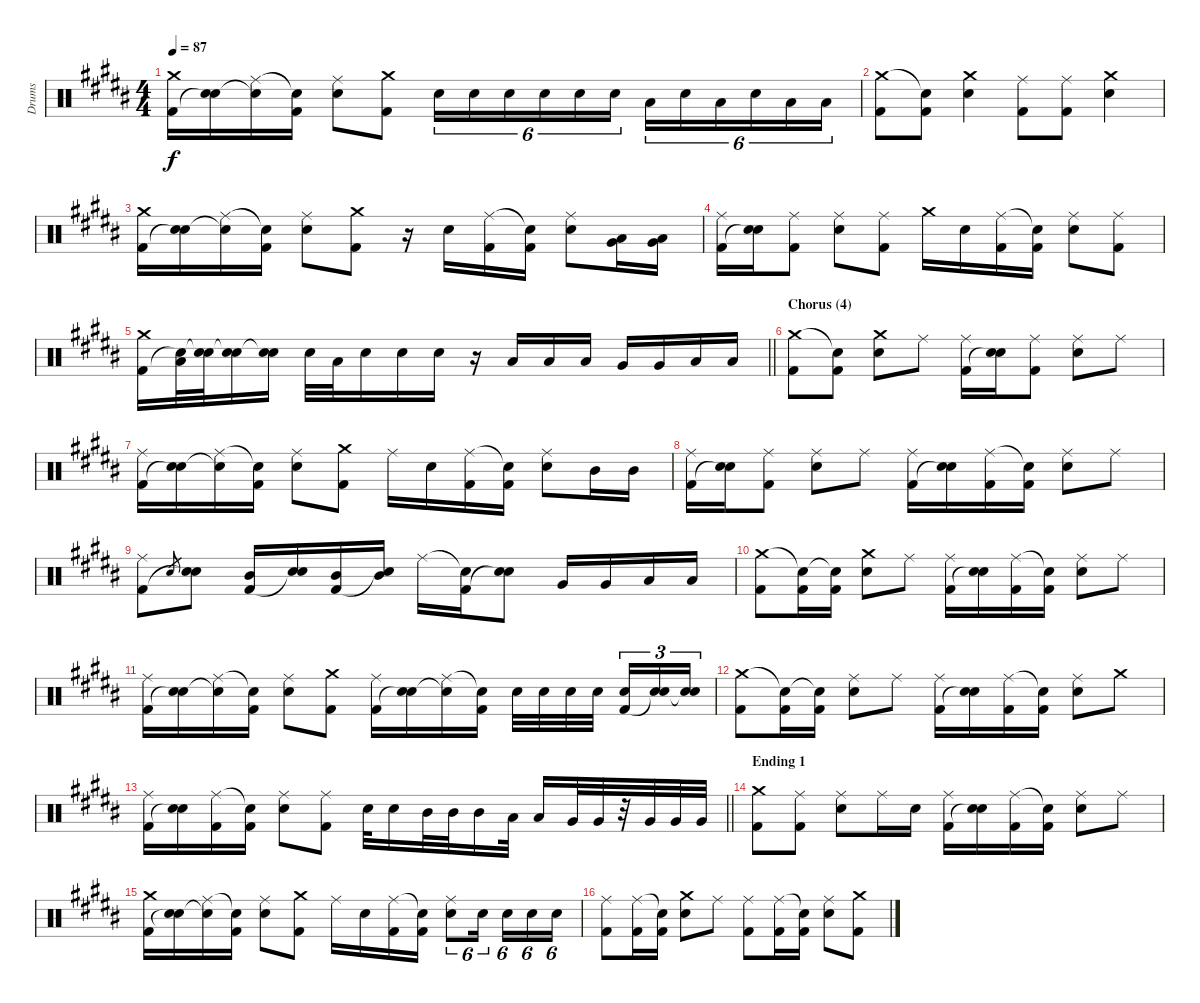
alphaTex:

\track ("Drums" "Drums") {instrument percussion}
\staff {score}
\articulation defaults
\ts (4 4)
\tempo 87
\clef neutral
\ks b
("Crash medium (hit)" "Kick (hit) 2").16{dy f} ("Electric Snare (hit)" "Snare (hit)"{t}).16 ("Ride (middle)" "Snare (hit)"{t}).16 ("Snare (hit)"{t} "Kick (hit) 2").16 ("Ride (middle)" "Electric Snare (hit)").8 ("Crash medium (hit)" "Kick (hit) 2").8 "Electric Snare (hit)".16{tu (6 4)} "Electric Snare (hit)".16{tu (6 4)} "Electric Snare (hit)".16{tu (6 4)} "Electric Snare (hit)".16{tu (6 4)} "Electric Snare (hit)".16{tu (6 4)} "Electric Snare (hit)".16{tu (6 4)} "Low Tom (hit)".16{tu (6 4)} "Electric Snare (hit)".16{tu (6 4)} "Low Tom (hit)".16{tu (6 4)} "Electric Snare (hit)".16{tu (6 4)} "Low Tom (hit)".16{tu (6 4)} "Low Tom (hit)".16{tu (6 4)} |
("Crash medium (hit)" "Kick (hit) 2").8 ("Snare (hit)"{t} "Kick (hit) 2").8 ("Crash medium (hit)" "Electric Snare (hit)").4 ("Ride (middle)" "Kick (hit) 2").8 ("Ride (middle)" "Kick (hit) 2").8 ("Crash medium (hit)" "Electric Snare (hit)").4 |
("Crash medium (hit)" "Kick (hit) 2").16 ("Electric Snare (hit)" "Snare (hit)"{t}).16 ("Ride (middle)" "Snare (hit)"{t}).16 ("Snare (hit)"{t} "Kick (hit) 2").16 ("Ride (middle)" "Electric Snare (hit)").8 ("Crash medium (hit)" "Kick (hit) 2").8 r.16 "Electric Snare (hit)".16 ("Ride (middle)" "Kick (hit) 2").16 ("Snare (hit)"{t} "Kick (hit) 2").16 ("Ride (middle)" "Electric Snare (hit)").8 ("Low Tom (hit)" "Very Low Tom (hit)").16 ("Low Tom (hit)" "Very Low Tom (hit)").16 |
("Ride (middle)" "Kick (hit) 2").16 ("Electric Snare (hit)" "Snare (hit)"{t}).16 ("Ride (middle)" "Kick (hit) 2").8 ("Ride (middle)" "Electric Snare (hit)").8 ("Ride (middle)" "Kick (hit) 2").8 "Crash medium (hit)".16 "Electric Snare (hit)".16 ("Ride (middle)" "Kick (hit) 2").16 ("Snare (hit)"{t} "Kick (hit) 2").16 ("Ride (middle)" "Electric Snare (hit)").8 ("Ride (middle)" "Kick (hit) 2").8 |
\barLineRight lightlight
("Crash medium (hit)" "Kick (hit) 2").16 ("Low Tom (hit)" "Snare (hit)"{t}).32 ("Electric Snare (hit)" "Snare (hit)"{t}).32 ("Electric Snare (hit)" "Snare (hit)"{t}).16 ("Electric Snare (hit)" "Snare (hit)"{t}).16 "Electric Snare (hit)".32 "Low Tom (hit)".32 "Electric Snare (hit)".16 "Electric Snare (hit)".16 "Electric Snare (hit)".16 r.16 "Low Tom (hit)".16 "Low Tom (hit)".16 "Low Tom (hit)".16 "Very Low Tom (hit)".16 "Very Low Tom (hit)".16 "Low Floor Tom (hit)".16 "Low Floor Tom (hit)".16 |
\section ("" "Chorus (4)")
("Crash medium (hit)" "Kick (hit) 2").8 ("Snare (hit)"{t} "Kick (hit) 2").8 ("Crash medium (hit)" "Electric Snare (hit)").8 "Ride (middle)".8 ("Ride (middle)" "Kick (hit) 2").16 ("Electric Snare (hit)" "Snare (hit)"{t}).16 ("Ride (middle)" "Kick (hit) 2").8 ("Ride (middle)" "Electric Snare (hit)").8 "Ride (middle)".8 |
("Ride (middle)" "Kick (hit) 2").16 ("Electric Snare (hit)" "Snare (hit)"{t}).16 ("Ride (middle)" "Snare (hit)"{t}).16 ("Snare (hit)"{t} "Kick (hit) 2").16 ("Ride (middle)" "Electric Snare (hit)").8 ("Crash medium (hit)" "Kick (hit) 2").8 "Ride (middle)".16 "Electric Snare (hit)".16 ("Ride (middle)" "Kick (hit) 2").16 ("Snare (hit)"{t} "Kick (hit) 2").16 ("Ride (middle)" "Electric Snare (hit)").8 "Mid Tom (hit)".16 "Mid Tom (hit)".16 |
("Ride (middle)" "Kick (hit) 2").16 ("Electric Snare (hit)" "Snare (hit)"{t}).16 ("Ride (middle)" "Kick (hit) 2").8 ("Ride (middle)" "Electric Snare (hit)").8 "Ride (middle)".8 ("Ride (middle)" "Kick (hit) 2").16 ("Electric Snare (hit)" "Snare (hit)"{t}).16 ("Ride (middle)" "Kick (hit) 2").16 ("Snare (hit)"{t} "Kick (hit) 2").16 ("Ride (middle)" "Electric Snare (hit)").8 "Ride (middle)".8 |
("Ride (middle)" "Kick (hit) 2").8 "Electric Snare (hit)".8{gr} ("Electric Snare (hit)" "Snare (hit)"{t}).8 ("Mid Tom (hit)" "Kick (hit) 2").16 ("Electric Snare (hit)" "Snare (hit)"{t}).16 ("Mid Tom (hit)" "Kick (hit) 2").16 ("Mid Tom (hit)" "Snare (hit)"{t}).16 "Ride (middle)".16 ("Snare (hit)"{t} "Kick (hit) 2").16 ("Electric Snare (hit)" "Snare (hit)"{t}).8 "Very Low Tom (hit)".16 "Very Low Tom (hit)".16 "Low Floor Tom (hit)".16 "Low Floor Tom (hit)".16 |
("Crash medium (hit)" "Kick (hit) 2").8 ("Snare (hit)"{t} "Kick (hit) 2").16 ("Snare (hit)"{t} "Kick (hit) 2").16 ("Crash medium (hit)" "Electric Snare (hit)").8 "Ride (middle)".8 ("Ride (middle)" "Kick (hit) 2").16 ("Electric Snare (hit)" "Snare (hit)"{t}).16 ("Ride (middle)" "Kick (hit) 2").16 ("Snare (hit)"{t} "Kick (hit) 2").16 ("Ride (middle)" "Electric Snare (hit)").8 "Ride (middle)".8 |
("Ride (middle)" "Kick (hit) 2").16 ("Electric Snare (hit)" "Snare (hit)"{t}).16 ("Ride (middle)" "Snare (hit)"{t}).16 ("Snare (hit)"{t} "Kick (hit) 2").16 ("Ride (middle)" "Electric Snare (hit)").8 ("Crash medium (hit)" "Kick (hit) 2").8 ("Ride (middle)" "Kick (hit) 2").16 ("Electric Snare (hit)" "Snare (hit)"{t}).16 ("Ride (middle)" "Snare (hit)"{t}).16 ("Snare (hit)"{t} "Kick (hit) 2").16 "Electric Snare (hit)".32 "Electric Snare (hit)".32 "Electric Snare (hit)".32 "Electric Snare (hit)".32 ("Electric Snare (hit)" "Kick (hit) 2").16{tu (3 2)} ("Electric Snare (hit)" "Snare (hit)"{t}).16{tu (3 2)} ("Electric Snare (hit)" "Snare (hit)"{t}).16{tu (3 2)} |
("Crash medium (hit)" "Kick (hit) 2").8 ("Snare (hit)"{t} "Kick (hit) 2").16 ("Snare (hit)"{t} "Kick (hit) 2").16 ("Ride (middle)" "Electric Snare (hit)").8 "Ride (middle)".8 ("Ride (middle)" "Kick (hit) 2").16 ("Electric Snare (hit)" "Snare (hit)"{t}).16 ("Ride (middle)" "Kick (hit) 2").16 ("Snare (hit)"{t} "Kick (hit) 2").16 ("Ride (middle)" "Electric Snare (hit)").8 "Crash medium (hit)".8 |
\barLineRight lightlight
("Ride (middle)" "Kick (hit) 2").16 ("Electric Snare (hit)" "Snare (hit)"{t}).16 ("Ride (middle)" "Kick (hit) 2").16 ("Snare (hit)"{t} "Kick (hit) 2").16 ("Ride (middle)" "Electric Snare (hit)").8 ("Ride (middle)" "Kick (hit) 2").8 "Electric Snare (hit)".32 "Electric Snare (hit)".16 "Mid Tom (hit)".32 "Mid Tom (hit)".32 "Mid Tom (hit)".16 "Low Tom (hit)".32 "Low Tom (hit)".16 "Very Low Tom (hit)".32 "Very Low Tom (hit)".32 r.32 "Very Low Tom (hit)".32 "Very Low Tom (hit)".32 "Very Low Tom (hit)".32 |
\section ("" "Ending 1")
("Crash medium (hit)" "Kick (hit) 2").8 ("Ride (middle)" "Kick (hit) 2").8 ("Ride (middle)" "Electric Snare (hit)").8 "Ride (middle)".16 "Electric Snare (hit)".16 ("Ride (middle)" "Kick (hit) 2").16 ("Electric Snare (hit)" "Snare (hit)"{t}).16 ("Ride (middle)" "Kick (hit) 2").16 ("Snare (hit)"{t} "Kick (hit) 2").16 ("Ride (middle)" "Electric Snare (hit)").8 "Ride (middle)".8 |
("Crash medium (hit)" "Kick (hit) 2").16 ("Electric Snare (hit)" "Snare (hit)"{t}).16 ("Ride (middle)" "Snare (hit)"{t}).16 ("Snare (hit)"{t} "Kick (hit) 2").16 ("Ride (middle)" "Electric Snare (hit)").8 ("Crash medium (hit)" "Kick (hit) 2").8 "Ride (middle)".16 "Electric Snare (hit)".16 ("Ride (middle)" "Kick (hit) 2").16 ("Snare (hit)"{t} "Kick (hit) 2").16 ("Ride (middle)" "Electric Snare (hit)").8{tu (6 4)} "Electric Snare (hit)".16{tu (6 4)} "Electric Snare (hit)".16{tu (6 4)} "Electric Snare (hit)".16{tu (6 4)} "Electric Snare (hit)".16{tu (6 4)} |
("Ride (middle)" "Kick (hit) 2").8 ("Ride (middle)" "Kick (hit) 2").16 ("Snare (hit)"{t} "Kick (hit) 2").16 ("Crash medium (hit)" "Electric Snare (hit)").8 "Ride (middle)".8 ("Ride (middle)" "Kick (hit) 2").8 ("Ride (middle)" "Kick (hit) 2").16 ("Snare (hit)"{t} "Kick (hit) 2").16 ("Ride (middle)" "Electric Snare (hit)").8 ("Crash medium (hit)" "Kick (hit) 2").8
